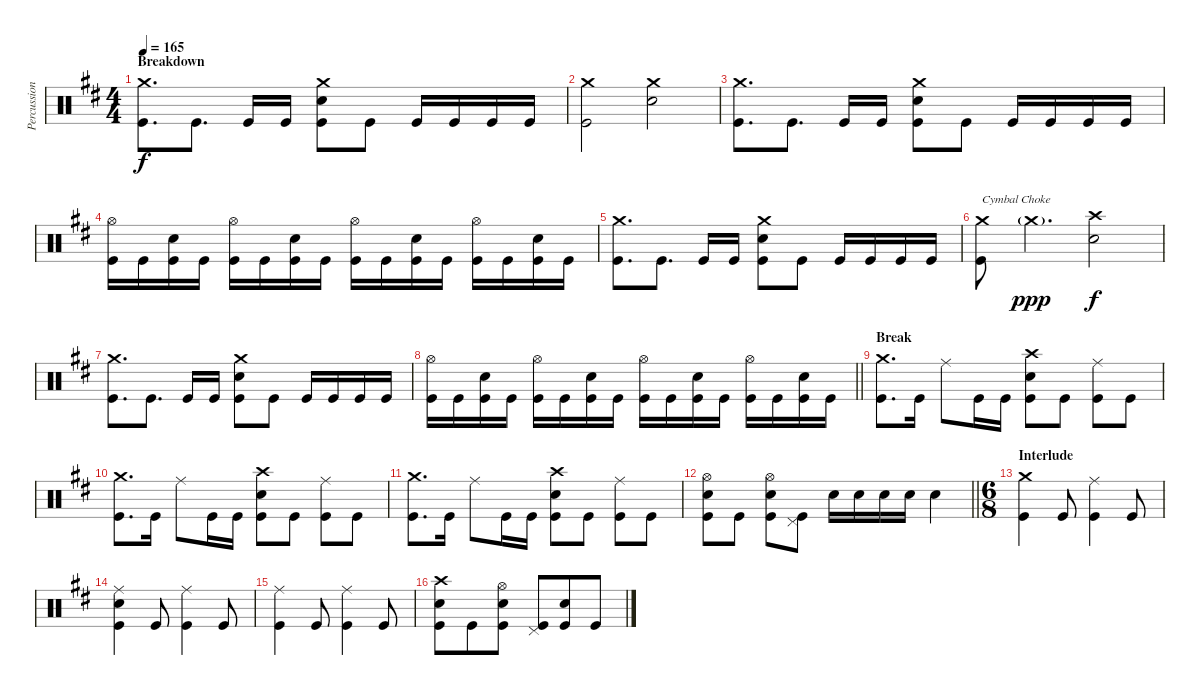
\track ("Percussion" "Percussion") {instrument percussion}
\staff {score}
\articulation defaults
\ts (4 4)
\section ("" "Breakdown")
\tempo 165
\clef neutral
\ks d
("Crash medium (hit)" "Kick (hit)").8{d dy f} "Kick (hit)".8{d} "Kick (hit)".16 "Kick (hit)".16 ("Crash medium (hit)" "Electric Snare (hit)" "Kick (hit)").8 "Kick (hit)".8 "Kick (hit)".16 "Kick (hit)".16 "Kick (hit)".16 "Kick (hit)".16 |
("Crash medium (hit)" "Kick (hit)").2 ("Crash medium (hit)" "Electric Snare (hit)").2 |
("Crash medium (hit)" "Kick (hit)").8{d} "Kick (hit)".8{d} "Kick (hit)".16 "Kick (hit)".16 ("Crash medium (hit)" "Electric Snare (hit)" "Kick (hit)").8 "Kick (hit)".8 "Kick (hit)".16 "Kick (hit)".16 "Kick (hit)".16 "Kick (hit)".16 |
("Hi-Hat (open)" "Kick (hit)").16 "Kick (hit)".16 ("Electric Snare (hit)" "Kick (hit)").16 "Kick (hit)".16 ("Hi-Hat (open)" "Kick (hit)").16 "Kick (hit)".16 ("Electric Snare (hit)" "Kick (hit)").16 "Kick (hit)".16 ("Hi-Hat (open)" "Kick (hit)").16 "Kick (hit)".16 ("Electric Snare (hit)" "Kick (hit)").16 "Kick (hit)".16 ("Hi-Hat (open)" "Kick (hit)").16 "Kick (hit)".16 ("Electric Snare (hit)" "Kick (hit)").16 "Kick (hit)".16 |
("Crash medium (hit)" "Kick (hit)").8{d} "Kick (hit)".8{d} "Kick (hit)".16 "Kick (hit)".16 ("Crash medium (hit)" "Electric Snare (hit)" "Kick (hit)").8 "Kick (hit)".8 "Kick (hit)".16 "Kick (hit)".16 "Kick (hit)".16 "Kick (hit)".16 |
("Crash medium (hit)" "Kick (hit)").8{txt "Cymbal Choke"} "Crash medium (hit)"{g}.4{d dy ppp volume 0} ("Crash high (hit)" "Electric Snare (hit)").2{dy f volume 13} |
("Crash medium (hit)" "Kick (hit)").8{d} "Kick (hit)".8{d} "Kick (hit)".16 "Kick (hit)".16 ("Crash medium (hit)" "Electric Snare (hit)" "Kick (hit)").8 "Kick (hit)".8 "Kick (hit)".16 "Kick (hit)".16 "Kick (hit)".16 "Kick (hit)".16 |
\barLineRight lightlight
("Hi-Hat (open)" "Kick (hit)").16 "Kick (hit)".16 ("Electric Snare (hit)" "Kick (hit)").16 "Kick (hit)".16 ("Hi-Hat (open)" "Kick (hit)").16 "Kick (hit)".16 ("Electric Snare (hit)" "Kick (hit)").16 "Kick (hit)".16 ("Hi-Hat (open)" "Kick (hit)").16 "Kick (hit)".16 ("Electric Snare (hit)" "Kick (hit)").16 "Kick (hit)".16 ("Hi-Hat (open)" "Kick (hit)").16 "Kick (hit)".16 ("Electric Snare (hit)" "Kick (hit)").16 "Kick (hit)".16 |
\section ("" "Break")
("Crash medium (hit)" "Kick (hit)").8{d} "Kick (hit)".16 "Ride (middle)".8 "Kick (hit)".16 "Kick (hit)".16 ("Crash high (hit)" "Electric Snare (hit)" "Kick (hit)").8 "Kick (hit)".8 ("Ride (middle)" "Kick (hit)").8 "Kick (hit)".8 |
("Crash medium (hit)" "Kick (hit)").8{d} "Kick (hit)".16 "Ride (middle)".8 "Kick (hit)".16 "Kick (hit)".16 ("Crash high (hit)" "Electric Snare (hit)" "Kick (hit)").8 "Kick (hit)".8 ("Ride (middle)" "Kick (hit)").8 "Kick (hit)".8 |
("Crash medium (hit)" "Kick (hit)").8{d} "Kick (hit)".16 "Ride (middle)".8 "Kick (hit)".16 "Kick (hit)".16 ("Crash high (hit)" "Electric Snare (hit)" "Kick (hit)").8 "Kick (hit)".8 ("Ride (middle)" "Kick (hit)").8 "Kick (hit)".8 |
\barLineRight lightlight
("Hi-Hat (open)" "Electric Snare (hit)" "Kick (hit)").8 "Kick (hit)".8 ("Hi-Hat (open)" "Electric Snare (hit)" "Kick (hit)").8 ("Pedal Hi-Hat (hit)" "Kick (hit)").8 "Electric Snare (hit)".16 "Electric Snare (hit)".16 "Electric Snare (hit)".16 "Electric Snare (hit)".16 "Electric Snare (hit)".4 |
\ts (6 8)
\section ("" "Interlude")
("Crash medium (hit)" "Kick (hit)").4 "Kick (hit)".8 ("Ride (middle)" "Kick (hit)").4 "Kick (hit)".8 |
("Ride (middle)" "Electric Snare (hit)" "Kick (hit)").4 "Kick (hit)".8 ("Ride (middle)" "Kick (hit)").4 "Kick (hit)".8 |
("Ride (middle)" "Kick (hit)").4 "Kick (hit)".8 ("Ride (middle)" "Kick (hit)").4 "Kick (hit)".8 |
("Crash high (hit)" "Electric Snare (hit)" "Kick (hit)").8 "Kick (hit)".8 ("Hi-Hat (open)" "Electric Snare (hit)" "Kick (hit)").8 ("Pedal Hi-Hat (hit)" "Kick (hit)").8 ("Electric Snare (hit)" "Kick (hit)").8 "Kick (hit)".8
